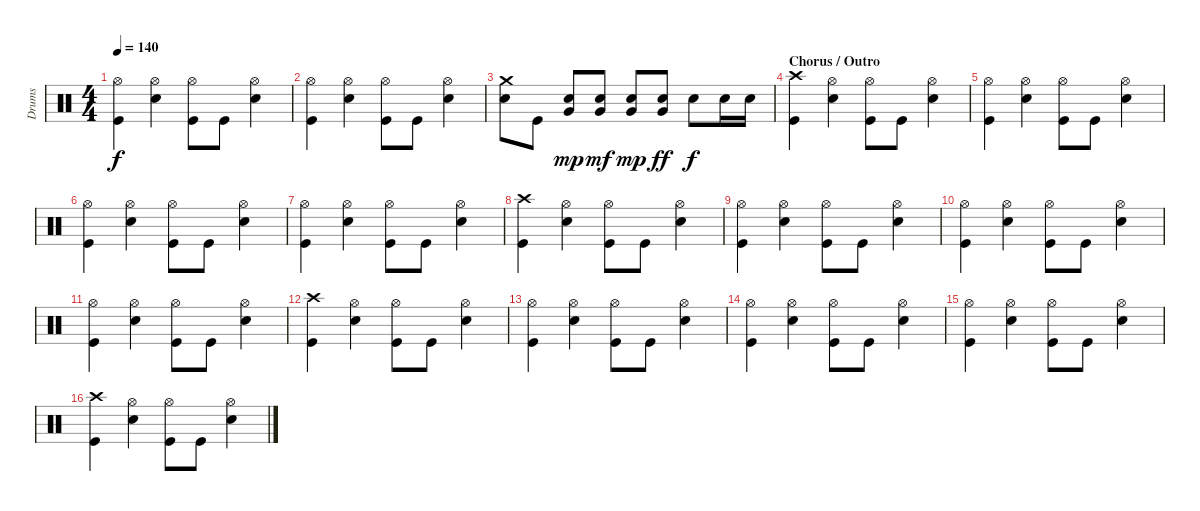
\track ("Drums" "Drums") {instrument percussion}
\staff {score}
\articulation defaults
\ts (4 4)
\tempo 140
\clef neutral
\ks c
("Hi-Hat (open)" "Kick (hit)").4{dy f} ("Hi-Hat (open)" "Electric Snare (hit)").4 ("Hi-Hat (open)" "Kick (hit)").8 "Kick (hit)".8 ("Hi-Hat (open)" "Electric Snare (hit)").4 |
("Hi-Hat (open)" "Kick (hit)").4 ("Hi-Hat (open)" "Electric Snare (hit)").4 ("Hi-Hat (open)" "Kick (hit)").8 "Kick (hit)".8 ("Hi-Hat (open)" "Electric Snare (hit)").4 |
("Crash medium (hit)" "Electric Snare (hit)").8 "Kick (hit)".8 ("Snare (hit) 2" "Very Low Tom (hit)").8{dy mp} ("Snare (hit) 2" "Very Low Tom (hit)").8{dy mf} ("Snare (hit) 2" "Very Low Tom (hit)").8{dy mp} ("Snare (hit) 2" "Very Low Tom (hit)").8{dy ff} "Electric Snare (hit)".8{dy f} "Electric Snare (hit)".16 "Electric Snare (hit)".16 |
\section ("" "Chorus / Outro")
("Crash high (hit)" "Kick (hit)").4 ("Hi-Hat (open)" "Electric Snare (hit)").4 ("Hi-Hat (open)" "Kick (hit)").8 "Kick (hit)".8 ("Hi-Hat (open)" "Electric Snare (hit)").4 |
("Hi-Hat (open)" "Kick (hit)").4 ("Hi-Hat (open)" "Electric Snare (hit)").4 ("Hi-Hat (open)" "Kick (hit)").8 "Kick (hit)".8 ("Hi-Hat (open)" "Electric Snare (hit)").4 |
("Hi-Hat (open)" "Kick (hit)").4 ("Hi-Hat (open)" "Electric Snare (hit)").4 ("Hi-Hat (open)" "Kick (hit)").8 "Kick (hit)".8 ("Hi-Hat (open)" "Electric Snare (hit)").4 |
("Hi-Hat (open)" "Kick (hit)").4 ("Hi-Hat (open)" "Electric Snare (hit)").4 ("Hi-Hat (open)" "Kick (hit)").8 "Kick (hit)".8 ("Hi-Hat (open)" "Electric Snare (hit)").4 |
("Crash high (hit)" "Kick (hit)").4 ("Hi-Hat (open)" "Electric Snare (hit)").4 ("Hi-Hat (open)" "Kick (hit)").8 "Kick (hit)".8 ("Hi-Hat (open)" "Electric Snare (hit)").4 |
("Hi-Hat (open)" "Kick (hit)").4 ("Hi-Hat (open)" "Electric Snare (hit)").4 ("Hi-Hat (open)" "Kick (hit)").8 "Kick (hit)".8 ("Hi-Hat (open)" "Electric Snare (hit)").4 |
("Hi-Hat (open)" "Kick (hit)").4 ("Hi-Hat (open)" "Electric Snare (hit)").4 ("Hi-Hat (open)" "Kick (hit)").8 "Kick (hit)".8 ("Hi-Hat (open)" "Electric Snare (hit)").4 |
("Hi-Hat (open)" "Kick (hit)").4 ("Hi-Hat (open)" "Electric Snare (hit)").4 ("Hi-Hat (open)" "Kick (hit)").8 "Kick (hit)".8 ("Hi-Hat (open)" "Electric Snare (hit)").4 |
("Crash high (hit)" "Kick (hit)").4 ("Hi-Hat (open)" "Electric Snare (hit)").4 ("Hi-Hat (open)" "Kick (hit)").8 "Kick (hit)".8 ("Hi-Hat (open)" "Electric Snare (hit)").4 |
("Hi-Hat (open)" "Kick (hit)").4 ("Hi-Hat (open)" "Electric Snare (hit)").4 ("Hi-Hat (open)" "Kick (hit)").8 "Kick (hit)".8 ("Hi-Hat (open)" "Electric Snare (hit)").4 |
("Hi-Hat (open)" "Kick (hit)").4 ("Hi-Hat (open)" "Electric Snare (hit)").4 ("Hi-Hat (open)" "Kick (hit)").8 "Kick (hit)".8 ("Hi-Hat (open)" "Electric Snare (hit)").4 |
("Hi-Hat (open)" "Kick (hit)").4 ("Hi-Hat (open)" "Electric Snare (hit)").4 ("Hi-Hat (open)" "Kick (hit)").8 "Kick (hit)".8 ("Hi-Hat (open)" "Electric Snare (hit)").4 |
("Crash high (hit)" "Kick (hit)").4 ("Hi-Hat (open)" "Electric Snare (hit)").4 ("Hi-Hat (open)" "Kick (hit)").8 "Kick (hit)".8 ("Hi-Hat (open)" "Electric Snare (hit)").4
